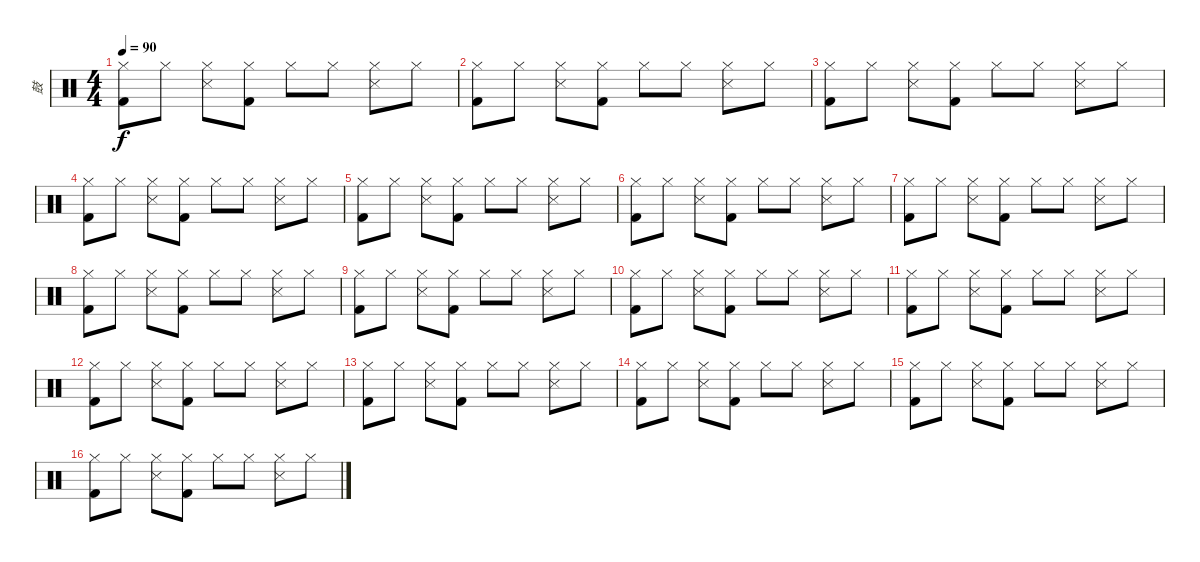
\track ("鼓" "鼓") {instrument percussion}
\staff {score}
\articulation defaults
\ts (4 4)
\tempo 90
\clef neutral
\ks c
("Hi-Hat (closed)" "Kick (hit) 2").8{dy f} "Hi-Hat (closed)".8 ("Hi-Hat (closed)" "Snare (side stick) 3").8 ("Hi-Hat (closed)" "Kick (hit) 2").8 "Hi-Hat (closed)".8 "Hi-Hat (closed)".8 ("Hi-Hat (closed)" "Snare (side stick) 3").8 "Hi-Hat (closed)".8 |
("Hi-Hat (closed)" "Kick (hit) 2").8 "Hi-Hat (closed)".8 ("Hi-Hat (closed)" "Snare (side stick) 3").8 ("Hi-Hat (closed)" "Kick (hit) 2").8 "Hi-Hat (closed)".8 "Hi-Hat (closed)".8 ("Hi-Hat (closed)" "Snare (side stick) 3").8 "Hi-Hat (closed)".8 |
("Hi-Hat (closed)" "Kick (hit) 2").8 "Hi-Hat (closed)".8 ("Hi-Hat (closed)" "Snare (side stick) 3").8 ("Hi-Hat (closed)" "Kick (hit) 2").8 "Hi-Hat (closed)".8 "Hi-Hat (closed)".8 ("Hi-Hat (closed)" "Snare (side stick) 3").8 "Hi-Hat (closed)".8 |
("Hi-Hat (closed)" "Kick (hit) 2").8 "Hi-Hat (closed)".8 ("Hi-Hat (closed)" "Snare (side stick) 3").8 ("Hi-Hat (closed)" "Kick (hit) 2").8 "Hi-Hat (closed)".8 "Hi-Hat (closed)".8 ("Hi-Hat (closed)" "Snare (side stick) 3").8 "Hi-Hat (closed)".8 |
("Hi-Hat (closed)" "Kick (hit) 2").8 "Hi-Hat (closed)".8 ("Hi-Hat (closed)" "Snare (side stick) 3").8 ("Hi-Hat (closed)" "Kick (hit) 2").8 "Hi-Hat (closed)".8 "Hi-Hat (closed)".8 ("Hi-Hat (closed)" "Snare (side stick) 3").8 "Hi-Hat (closed)".8 |
("Hi-Hat (closed)" "Kick (hit) 2").8 "Hi-Hat (closed)".8 ("Hi-Hat (closed)" "Snare (side stick) 3").8 ("Hi-Hat (closed)" "Kick (hit) 2").8 "Hi-Hat (closed)".8 "Hi-Hat (closed)".8 ("Hi-Hat (closed)" "Snare (side stick) 3").8 "Hi-Hat (closed)".8 |
("Hi-Hat (closed)" "Kick (hit) 2").8 "Hi-Hat (closed)".8 ("Hi-Hat (closed)" "Snare (side stick) 3").8 ("Hi-Hat (closed)" "Kick (hit) 2").8 "Hi-Hat (closed)".8 "Hi-Hat (closed)".8 ("Hi-Hat (closed)" "Snare (side stick) 3").8 "Hi-Hat (closed)".8 |
("Hi-Hat (closed)" "Kick (hit) 2").8 "Hi-Hat (closed)".8 ("Hi-Hat (closed)" "Snare (side stick) 3").8 ("Hi-Hat (closed)" "Kick (hit) 2").8 "Hi-Hat (closed)".8 "Hi-Hat (closed)".8 ("Hi-Hat (closed)" "Snare (side stick) 3").8 "Hi-Hat (closed)".8 |
("Hi-Hat (closed)" "Kick (hit) 2").8 "Hi-Hat (closed)".8 ("Hi-Hat (closed)" "Snare (side stick) 3").8 ("Hi-Hat (closed)" "Kick (hit) 2").8 "Hi-Hat (closed)".8 "Hi-Hat (closed)".8 ("Hi-Hat (closed)" "Snare (side stick) 3").8 "Hi-Hat (closed)".8 |
("Hi-Hat (closed)" "Kick (hit) 2").8 "Hi-Hat (closed)".8 ("Hi-Hat (closed)" "Snare (side stick) 3").8 ("Hi-Hat (closed)" "Kick (hit) 2").8 "Hi-Hat (closed)".8 "Hi-Hat (closed)".8 ("Hi-Hat (closed)" "Snare (side stick) 3").8 "Hi-Hat (closed)".8 |
("Hi-Hat (closed)" "Kick (hit) 2").8 "Hi-Hat (closed)".8 ("Hi-Hat (closed)" "Snare (side stick) 3").8 ("Hi-Hat (closed)" "Kick (hit) 2").8 "Hi-Hat (closed)".8 "Hi-Hat (closed)".8 ("Hi-Hat (closed)" "Snare (side stick) 3").8 "Hi-Hat (closed)".8 |
("Hi-Hat (closed)" "Kick (hit) 2").8 "Hi-Hat (closed)".8 ("Hi-Hat (closed)" "Snare (side stick) 3").8 ("Hi-Hat (closed)" "Kick (hit) 2").8 "Hi-Hat (closed)".8 "Hi-Hat (closed)".8 ("Hi-Hat (closed)" "Snare (side stick) 3").8 "Hi-Hat (closed)".8 |
("Hi-Hat (closed)" "Kick (hit) 2").8 "Hi-Hat (closed)".8 ("Hi-Hat (closed)" "Snare (side stick) 3").8 ("Hi-Hat (closed)" "Kick (hit) 2").8 "Hi-Hat (closed)".8 "Hi-Hat (closed)".8 ("Hi-Hat (closed)" "Snare (side stick) 3").8 "Hi-Hat (closed)".8 |
("Hi-Hat (closed)" "Kick (hit) 2").8 "Hi-Hat (closed)".8 ("Hi-Hat (closed)" "Snare (side stick) 3").8 ("Hi-Hat (closed)" "Kick (hit) 2").8 "Hi-Hat (closed)".8 "Hi-Hat (closed)".8 ("Hi-Hat (closed)" "Snare (side stick) 3").8 "Hi-Hat (closed)".8 |
("Hi-Hat (closed)" "Kick (hit) 2").8 "Hi-Hat (closed)".8 ("Hi-Hat (closed)" "Snare (side stick) 3").8 ("Hi-Hat (closed)" "Kick (hit) 2").8 "Hi-Hat (closed)".8 "Hi-Hat (closed)".8 ("Hi-Hat (closed)" "Snare (side stick) 3").8 "Hi-Hat (closed)".8 |
("Hi-Hat (closed)" "Kick (hit) 2").8 "Hi-Hat (closed)".8 ("Hi-Hat (closed)" "Snare (side stick) 3").8 ("Hi-Hat (closed)" "Kick (hit) 2").8 "Hi-Hat (closed)".8 "Hi-Hat (closed)".8 ("Hi-Hat (closed)" "Snare (side stick) 3").8 "Hi-Hat (closed)".8
